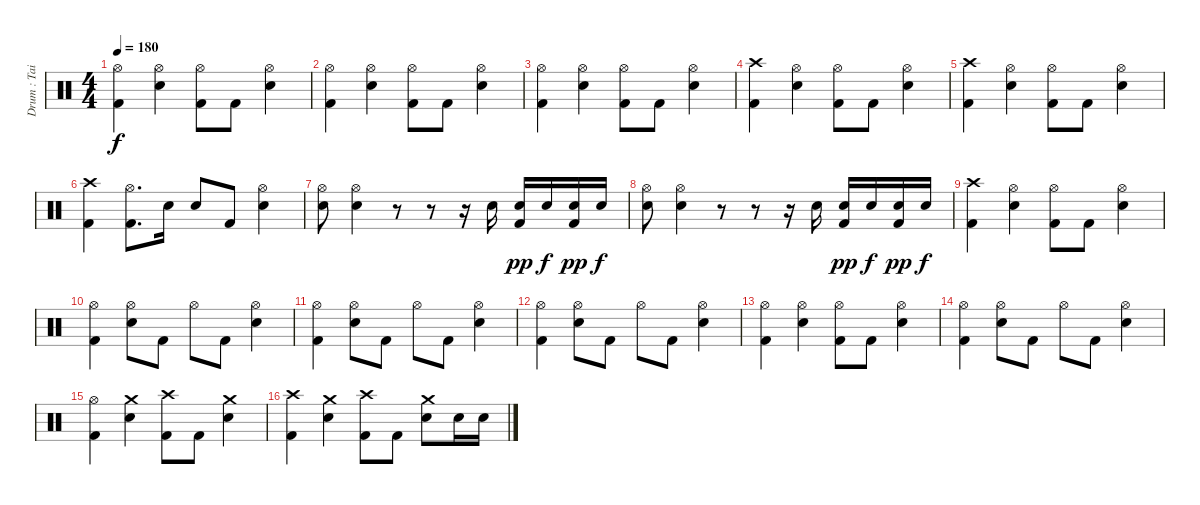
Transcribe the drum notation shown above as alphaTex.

\track ("Drum : Tainaka Ritsu" "Drum : Tai") {instrument percussion}
\staff {score}
\articulation defaults
\ts (4 4)
\tempo 180
\clef neutral
\ks c
("Hi-Hat (open)" "Kick (hit) 2").4{dy f} ("Hi-Hat (open)" "Snare (hit) 2").4 ("Hi-Hat (open)" "Kick (hit) 2").8 "Kick (hit) 2".8 ("Hi-Hat (open)" "Snare (hit) 2").4 |
("Hi-Hat (open)" "Kick (hit) 2").4 ("Hi-Hat (open)" "Snare (hit) 2").4 ("Hi-Hat (open)" "Kick (hit) 2").8 "Kick (hit) 2".8 ("Hi-Hat (open)" "Snare (hit) 2").4 |
("Hi-Hat (open)" "Kick (hit) 2").4 ("Hi-Hat (open)" "Snare (hit) 2").4 ("Hi-Hat (open)" "Kick (hit) 2").8 "Kick (hit) 2".8 ("Hi-Hat (open)" "Snare (hit) 2").4 |
("Crash high (hit)" "Kick (hit) 2").4 ("Hi-Hat (open)" "Snare (hit) 2").4 ("Hi-Hat (open)" "Kick (hit) 2").8 "Kick (hit) 2".8 ("Hi-Hat (open)" "Snare (hit) 2").4 |
("Crash high (hit)" "Kick (hit) 2").4 ("Hi-Hat (open)" "Snare (hit) 2").4 ("Hi-Hat (open)" "Kick (hit) 2").8 "Kick (hit) 2".8 ("Hi-Hat (open)" "Snare (hit) 2").4 |
("Crash high (hit)" "Kick (hit) 2").4 ("Hi-Hat (open)" "Kick (hit) 2").8{d} "Snare (hit) 2".16 "Snare (hit) 2".8 "Kick (hit) 2".8 ("Hi-Hat (open)" "Snare (hit) 2").4 |
("Hi-Hat (open)" "Snare (hit) 2").8 ("Hi-Hat (open)" "Snare (hit) 2").4 r.8 r.8 r.16 "Snare (hit) 2".16 ("Snare (hit) 2" "Kick (hit) 2").16{dy pp} "Snare (hit) 2".16{dy f} ("Snare (hit) 2" "Kick (hit) 2").16{dy pp} "Snare (hit) 2".16{dy f} |
("Hi-Hat (open)" "Snare (hit) 2").8 ("Hi-Hat (open)" "Snare (hit) 2").4 r.8 r.8 r.16 "Snare (hit) 2".16 ("Snare (hit) 2" "Kick (hit) 2").16{dy pp} "Snare (hit) 2".16{dy f} ("Snare (hit) 2" "Kick (hit) 2").16{dy pp} "Snare (hit) 2".16{dy f} |
("Crash high (hit)" "Kick (hit) 2").4 ("Hi-Hat (open)" "Snare (hit) 2").4 ("Hi-Hat (open)" "Kick (hit) 2").8 "Kick (hit) 2".8 ("Hi-Hat (open)" "Snare (hit) 2").4 |
("Hi-Hat (open)" "Kick (hit) 2").4 ("Hi-Hat (open)" "Snare (hit) 2").8 "Kick (hit) 2".8 "Hi-Hat (open)".8 "Kick (hit) 2".8 ("Hi-Hat (open)" "Snare (hit) 2").4 |
("Hi-Hat (open)" "Kick (hit) 2").4 ("Hi-Hat (open)" "Snare (hit) 2").8 "Kick (hit) 2".8 "Hi-Hat (open)".8 "Kick (hit) 2".8 ("Hi-Hat (open)" "Snare (hit) 2").4 |
("Hi-Hat (open)" "Kick (hit) 2").4 ("Hi-Hat (open)" "Snare (hit) 2").8 "Kick (hit) 2".8 "Hi-Hat (open)".8 "Kick (hit) 2".8 ("Hi-Hat (open)" "Snare (hit) 2").4 |
("Hi-Hat (open)" "Kick (hit) 2").4 ("Hi-Hat (open)" "Snare (hit) 2").4 ("Hi-Hat (open)" "Kick (hit) 2").8 "Kick (hit) 2".8 ("Hi-Hat (open)" "Snare (hit) 2").4 |
("Hi-Hat (open)" "Kick (hit) 2").4 ("Hi-Hat (open)" "Snare (hit) 2").8 "Kick (hit) 2".8 "Hi-Hat (open)".8 "Kick (hit) 2".8 ("Hi-Hat (open)" "Snare (hit) 2").4 |
("Hi-Hat (open)" "Kick (hit) 2").4 ("Crash medium (hit)" "Snare (hit) 2").4 ("Crash high (hit)" "Kick (hit) 2").8 "Kick (hit) 2".8 ("Crash medium (hit)" "Snare (hit) 2").4 |
("Crash high (hit)" "Kick (hit) 2").4 ("Crash medium (hit)" "Snare (hit) 2").4 ("Crash high (hit)" "Kick (hit) 2").8 "Kick (hit) 2".8 ("Crash medium (hit)" "Snare (hit) 2").8 "Snare (hit) 2".16 "Snare (hit) 2".16
